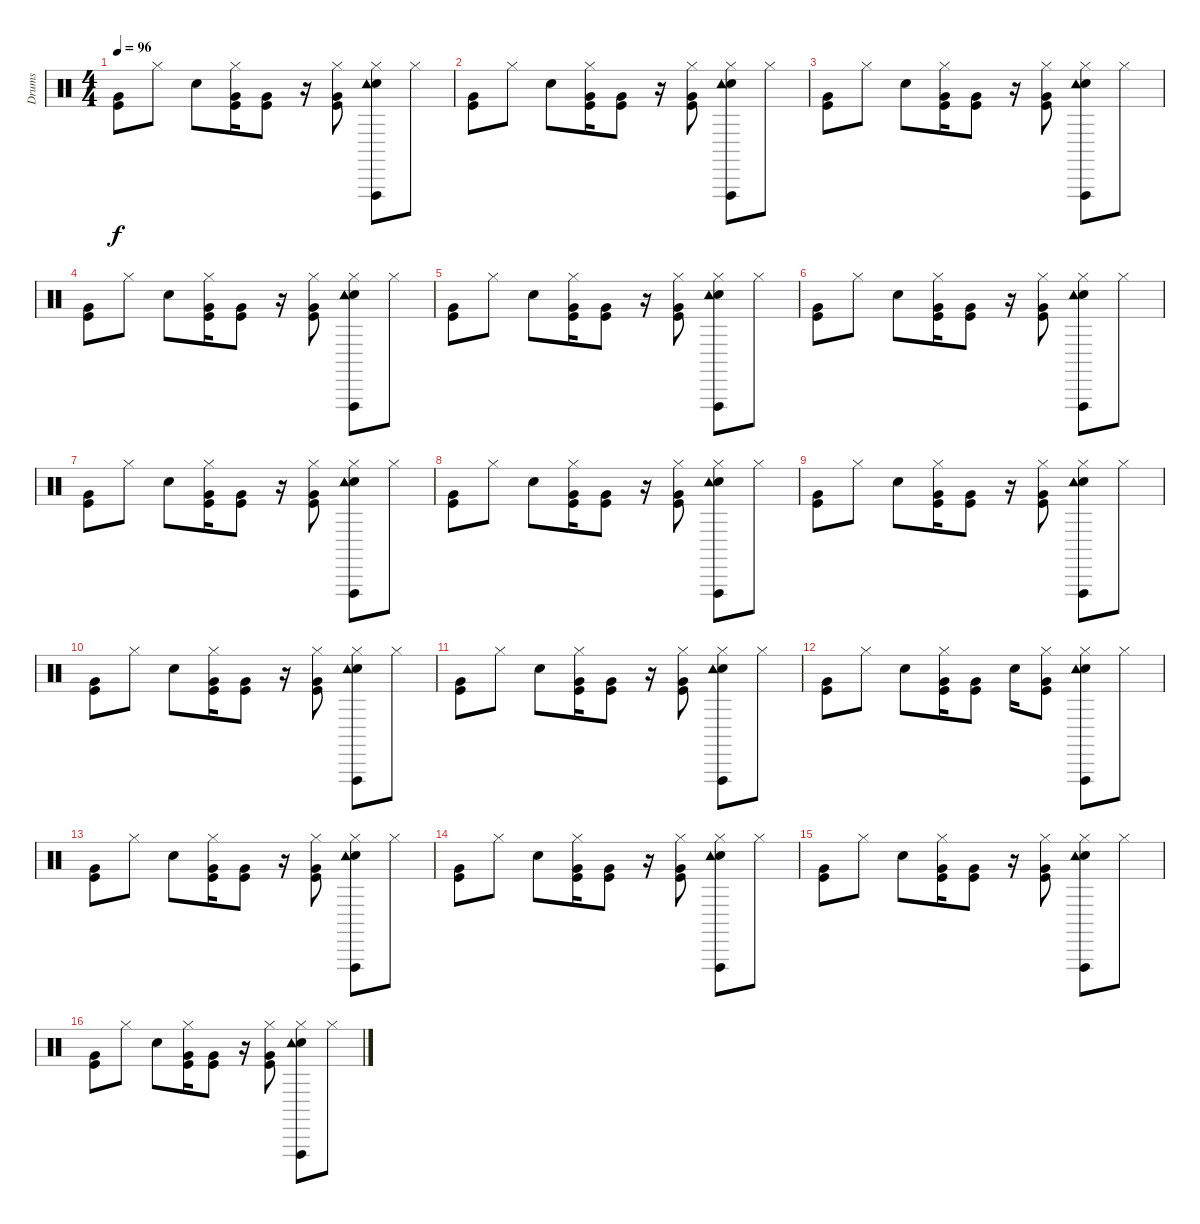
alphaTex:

\track ("Drums" "Drums") {instrument percussion}
\staff {score}
\articulation defaults
\ts (4 4)
\tempo 96
\clef neutral
\ks c
("Kick (hit)" "Very Low Tom (hit)").8{dy f} "Hi-Hat (closed)".8 "Snare (hit) 2".8 ("Hi-Hat (closed)" "Kick (hit)" "Very Low Tom (hit)").16 ("Kick (hit)" "Very Low Tom (hit)").8 r.16 ("Hi-Hat (closed)" "Kick (hit)" "Very Low Tom (hit)").8 ("Hi-Hat (closed)" "Vibraslap (hit)" "Snare (hit) 2" "Tambourine (hit)").8 "Hi-Hat (closed)".8 |
("Kick (hit)" "Very Low Tom (hit)").8 "Hi-Hat (closed)".8 "Snare (hit) 2".8 ("Hi-Hat (closed)" "Kick (hit)" "Very Low Tom (hit)").16 ("Kick (hit)" "Very Low Tom (hit)").8 r.16 ("Hi-Hat (closed)" "Kick (hit)" "Very Low Tom (hit)").8 ("Hi-Hat (closed)" "Vibraslap (hit)" "Snare (hit) 2" "Tambourine (hit)").8 "Hi-Hat (closed)".8 |
("Kick (hit)" "Very Low Tom (hit)").8 "Hi-Hat (closed)".8 "Snare (hit) 2".8 ("Hi-Hat (closed)" "Kick (hit)" "Very Low Tom (hit)").16 ("Kick (hit)" "Very Low Tom (hit)").8 r.16 ("Hi-Hat (closed)" "Kick (hit)" "Very Low Tom (hit)").8 ("Hi-Hat (closed)" "Vibraslap (hit)" "Snare (hit) 2" "Tambourine (hit)").8 "Hi-Hat (closed)".8 |
("Kick (hit)" "Very Low Tom (hit)").8 "Hi-Hat (closed)".8 "Snare (hit) 2".8 ("Hi-Hat (closed)" "Kick (hit)" "Very Low Tom (hit)").16 ("Kick (hit)" "Very Low Tom (hit)").8 r.16 ("Hi-Hat (closed)" "Kick (hit)" "Very Low Tom (hit)").8 ("Hi-Hat (closed)" "Vibraslap (hit)" "Snare (hit) 2" "Tambourine (hit)").8 "Hi-Hat (closed)".8 |
("Kick (hit)" "Very Low Tom (hit)").8 "Hi-Hat (closed)".8 "Snare (hit) 2".8 ("Hi-Hat (closed)" "Kick (hit)" "Very Low Tom (hit)").16 ("Kick (hit)" "Very Low Tom (hit)").8 r.16 ("Hi-Hat (closed)" "Kick (hit)" "Very Low Tom (hit)").8 ("Hi-Hat (closed)" "Vibraslap (hit)" "Snare (hit) 2" "Tambourine (hit)").8 "Hi-Hat (closed)".8 |
("Kick (hit)" "Very Low Tom (hit)").8 "Hi-Hat (closed)".8 "Snare (hit) 2".8 ("Hi-Hat (closed)" "Kick (hit)" "Very Low Tom (hit)").16 ("Kick (hit)" "Very Low Tom (hit)").8 r.16 ("Hi-Hat (closed)" "Kick (hit)" "Very Low Tom (hit)").8 ("Hi-Hat (closed)" "Vibraslap (hit)" "Snare (hit) 2" "Tambourine (hit)").8 "Hi-Hat (closed)".8 |
("Kick (hit)" "Very Low Tom (hit)").8 "Hi-Hat (closed)".8 "Snare (hit) 2".8 ("Hi-Hat (closed)" "Kick (hit)" "Very Low Tom (hit)").16 ("Kick (hit)" "Very Low Tom (hit)").8 r.16 ("Hi-Hat (closed)" "Kick (hit)" "Very Low Tom (hit)").8 ("Hi-Hat (closed)" "Vibraslap (hit)" "Snare (hit) 2" "Tambourine (hit)").8 "Hi-Hat (closed)".8 |
("Kick (hit)" "Very Low Tom (hit)").8 "Hi-Hat (closed)".8 "Snare (hit) 2".8 ("Hi-Hat (closed)" "Kick (hit)" "Very Low Tom (hit)").16 ("Kick (hit)" "Very Low Tom (hit)").8 r.16 ("Hi-Hat (closed)" "Kick (hit)" "Very Low Tom (hit)").8 ("Hi-Hat (closed)" "Vibraslap (hit)" "Snare (hit) 2" "Tambourine (hit)").8 "Hi-Hat (closed)".8 |
("Kick (hit)" "Very Low Tom (hit)").8 "Hi-Hat (closed)".8 "Snare (hit) 2".8 ("Hi-Hat (closed)" "Kick (hit)" "Very Low Tom (hit)").16 ("Kick (hit)" "Very Low Tom (hit)").8 r.16 ("Hi-Hat (closed)" "Kick (hit)" "Very Low Tom (hit)").8 ("Hi-Hat (closed)" "Vibraslap (hit)" "Snare (hit) 2" "Tambourine (hit)").8 "Hi-Hat (closed)".8 |
("Kick (hit)" "Very Low Tom (hit)").8 "Hi-Hat (closed)".8 "Snare (hit) 2".8 ("Hi-Hat (closed)" "Kick (hit)" "Very Low Tom (hit)").16 ("Kick (hit)" "Very Low Tom (hit)").8 r.16 ("Hi-Hat (closed)" "Kick (hit)" "Very Low Tom (hit)").8 ("Hi-Hat (closed)" "Vibraslap (hit)" "Snare (hit) 2" "Tambourine (hit)").8 "Hi-Hat (closed)".8 |
("Kick (hit)" "Very Low Tom (hit)").8 "Hi-Hat (closed)".8 "Snare (hit) 2".8 ("Hi-Hat (closed)" "Kick (hit)" "Very Low Tom (hit)").16 ("Kick (hit)" "Very Low Tom (hit)").8 r.16 ("Hi-Hat (closed)" "Kick (hit)" "Very Low Tom (hit)").8 ("Hi-Hat (closed)" "Vibraslap (hit)" "Snare (hit) 2" "Tambourine (hit)").8 "Hi-Hat (closed)".8 |
("Kick (hit)" "Very Low Tom (hit)").8 "Hi-Hat (closed)".8 "Snare (hit) 2".8 ("Hi-Hat (closed)" "Kick (hit)" "Very Low Tom (hit)").16 ("Kick (hit)" "Very Low Tom (hit)").8 "Snare (hit) 2".16 ("Hi-Hat (closed)" "Kick (hit)" "Very Low Tom (hit)").8 ("Hi-Hat (closed)" "Vibraslap (hit)" "Snare (hit) 2" "Tambourine (hit)").8 "Hi-Hat (closed)".8 |
("Kick (hit)" "Very Low Tom (hit)").8 "Hi-Hat (closed)".8 "Snare (hit) 2".8 ("Hi-Hat (closed)" "Kick (hit)" "Very Low Tom (hit)").16 ("Kick (hit)" "Very Low Tom (hit)").8 r.16 ("Hi-Hat (closed)" "Kick (hit)" "Very Low Tom (hit)").8 ("Hi-Hat (closed)" "Vibraslap (hit)" "Snare (hit) 2" "Tambourine (hit)").8 "Hi-Hat (closed)".8 |
("Kick (hit)" "Very Low Tom (hit)").8 "Hi-Hat (closed)".8 "Snare (hit) 2".8 ("Hi-Hat (closed)" "Kick (hit)" "Very Low Tom (hit)").16 ("Kick (hit)" "Very Low Tom (hit)").8 r.16 ("Hi-Hat (closed)" "Kick (hit)" "Very Low Tom (hit)").8 ("Hi-Hat (closed)" "Vibraslap (hit)" "Snare (hit) 2" "Tambourine (hit)").8 "Hi-Hat (closed)".8 |
("Kick (hit)" "Very Low Tom (hit)").8 "Hi-Hat (closed)".8 "Snare (hit) 2".8 ("Hi-Hat (closed)" "Kick (hit)" "Very Low Tom (hit)").16 ("Kick (hit)" "Very Low Tom (hit)").8 r.16 ("Hi-Hat (closed)" "Kick (hit)" "Very Low Tom (hit)").8 ("Hi-Hat (closed)" "Vibraslap (hit)" "Snare (hit) 2" "Tambourine (hit)").8 "Hi-Hat (closed)".8 |
("Kick (hit)" "Very Low Tom (hit)").8 "Hi-Hat (closed)".8 "Snare (hit) 2".8 ("Hi-Hat (closed)" "Kick (hit)" "Very Low Tom (hit)").16 ("Kick (hit)" "Very Low Tom (hit)").8 r.16 ("Hi-Hat (closed)" "Kick (hit)" "Very Low Tom (hit)").8 ("Hi-Hat (closed)" "Vibraslap (hit)" "Snare (hit) 2" "Tambourine (hit)").8 "Hi-Hat (closed)".8
